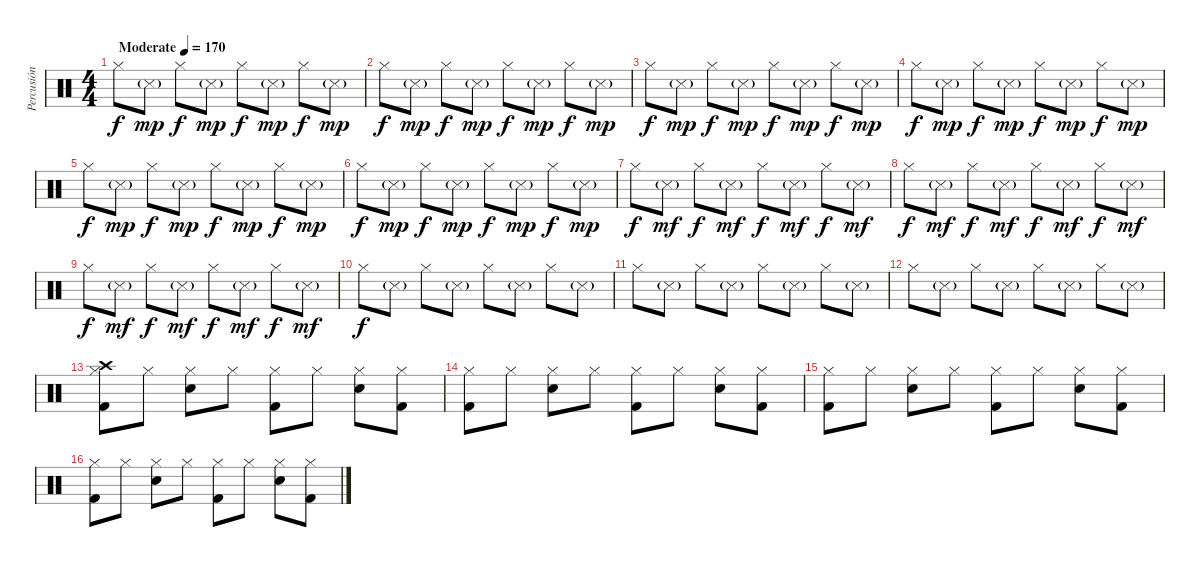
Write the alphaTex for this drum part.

\track ("Percusión" "Percusión") {instrument percussion}
\staff {score}
\articulation defaults
\ts (4 4)
\tempo (170 "Moderate")
\clef neutral
\ks c "Hi-Hat (closed)".8{dy f} "Snare (side stick) 3"{g}.8{dy mp} "Hi-Hat (closed)".8{dy f} "Snare (side stick) 3"{g}.8{dy mp} "Hi-Hat (closed)".8{dy f} "Snare (side stick) 3"{g}.8{dy mp} "Hi-Hat (closed)".8{dy f} "Snare (side stick) 3"{g}.8{dy mp}
|
"Hi-Hat (closed)".8{dy f} "Snare (side stick) 3"{g}.8{dy mp} "Hi-Hat (closed)".8{dy f} "Snare (side stick) 3"{g}.8{dy mp} "Hi-Hat (closed)".8{dy f} "Snare (side stick) 3"{g}.8{dy mp} "Hi-Hat (closed)".8{dy f} "Snare (side stick) 3"{g}.8{dy mp} |
"Hi-Hat (closed)".8{dy f} "Snare (side stick) 3"{g}.8{dy mp} "Hi-Hat (closed)".8{dy f} "Snare (side stick) 3"{g}.8{dy mp} "Hi-Hat (closed)".8{dy f} "Snare (side stick) 3"{g}.8{dy mp} "Hi-Hat (closed)".8{dy f} "Snare (side stick) 3"{g}.8{dy mp} |
"Hi-Hat (closed)".8{dy f} "Snare (side stick) 3"{g}.8{dy mp} "Hi-Hat (closed)".8{dy f} "Snare (side stick) 3"{g}.8{dy mp} "Hi-Hat (closed)".8{dy f} "Snare (side stick) 3"{g}.8{dy mp} "Hi-Hat (closed)".8{dy f} "Snare (side stick) 3"{g}.8{dy mp} |
"Hi-Hat (closed)".8{dy f} "Snare (side stick) 3"{g}.8{dy mp} "Hi-Hat (closed)".8{dy f} "Snare (side stick) 3"{g}.8{dy mp} "Hi-Hat (closed)".8{dy f} "Snare (side stick) 3"{g}.8{dy mp} "Hi-Hat (closed)".8{dy f} "Snare (side stick) 3"{g}.8{dy mp} |
"Hi-Hat (closed)".8{dy f} "Snare (side stick) 3"{g}.8{dy mp} "Hi-Hat (closed)".8{dy f} "Snare (side stick) 3"{g}.8{dy mp} "Hi-Hat (closed)".8{dy f} "Snare (side stick) 3"{g}.8{dy mp} "Hi-Hat (closed)".8{dy f} "Snare (side stick) 3"{g}.8{dy mp} |
"Hi-Hat (closed)".8{dy f} "Snare (side stick) 3"{g}.8{dy mf} "Hi-Hat (closed)".8{dy f} "Snare (side stick) 3"{g}.8{dy mf} "Hi-Hat (closed)".8{dy f} "Snare (side stick) 3"{g}.8{dy mf} "Hi-Hat (closed)".8{dy f} "Snare (side stick) 3"{g}.8{dy mf} |
"Hi-Hat (closed)".8{dy f} "Snare (side stick) 3"{g}.8{dy mf} "Hi-Hat (closed)".8{dy f} "Snare (side stick) 3"{g}.8{dy mf} "Hi-Hat (closed)".8{dy f} "Snare (side stick) 3"{g}.8{dy mf} "Hi-Hat (closed)".8{dy f} "Snare (side stick) 3"{g}.8{dy mf} |
"Hi-Hat (closed)".8{dy f} "Snare (side stick) 3"{g}.8{dy mf} "Hi-Hat (closed)".8{dy f} "Snare (side stick) 3"{g}.8{dy mf} "Hi-Hat (closed)".8{dy f} "Snare (side stick) 3"{g}.8{dy mf} "Hi-Hat (closed)".8{dy f} "Snare (side stick) 3"{g}.8{dy mf} |
"Hi-Hat (closed)".8{dy f} "Snare (side stick) 3"{g}.8 "Hi-Hat (closed)".8 "Snare (side stick) 3"{g}.8 "Hi-Hat (closed)".8 "Snare (side stick) 3"{g}.8 "Hi-Hat (closed)".8 "Snare (side stick) 3"{g}.8 |
"Hi-Hat (closed)".8 "Snare (side stick) 3"{g}.8 "Hi-Hat (closed)".8 "Snare (side stick) 3"{g}.8 "Hi-Hat (closed)".8 "Snare (side stick) 3"{g}.8 "Hi-Hat (closed)".8 "Snare (side stick) 3"{g}.8 |
"Hi-Hat (closed)".8 "Snare (side stick) 3"{g}.8 "Hi-Hat (closed)".8 "Snare (side stick) 3"{g}.8 "Hi-Hat (closed)".8 "Snare (side stick) 3"{g}.8 "Hi-Hat (closed)".8 "Snare (side stick) 3"{g}.8 |
("Crash high (hit)" "Hi-Hat (closed)" "Kick (hit) 2").8 "Hi-Hat (closed)".8 ("Hi-Hat (closed)" "Electric Snare (hit)").8 "Hi-Hat (closed)".8 ("Hi-Hat (closed)" "Kick (hit) 2").8 "Hi-Hat (closed)".8 ("Hi-Hat (closed)" "Electric Snare (hit)").8 ("Hi-Hat (closed)" "Kick (hit) 2").8 |
("Hi-Hat (closed)" "Kick (hit) 2").8 "Hi-Hat (closed)".8 ("Hi-Hat (closed)" "Electric Snare (hit)").8 "Hi-Hat (closed)".8 ("Hi-Hat (closed)" "Kick (hit) 2").8 "Hi-Hat (closed)".8 ("Hi-Hat (closed)" "Electric Snare (hit)").8 ("Hi-Hat (closed)" "Kick (hit) 2").8 |
("Hi-Hat (closed)" "Kick (hit) 2").8 "Hi-Hat (closed)".8 ("Hi-Hat (closed)" "Electric Snare (hit)").8 "Hi-Hat (closed)".8 ("Hi-Hat (closed)" "Kick (hit) 2").8 "Hi-Hat (closed)".8 ("Hi-Hat (closed)" "Electric Snare (hit)").8 ("Hi-Hat (closed)" "Kick (hit) 2").8 |
("Hi-Hat (closed)" "Kick (hit) 2").8 "Hi-Hat (closed)".8 ("Hi-Hat (closed)" "Electric Snare (hit)").8 "Hi-Hat (closed)".8 ("Hi-Hat (closed)" "Kick (hit) 2").8 "Hi-Hat (closed)".8 ("Hi-Hat (closed)" "Electric Snare (hit)").8 ("Hi-Hat (closed)" "Kick (hit) 2").8
